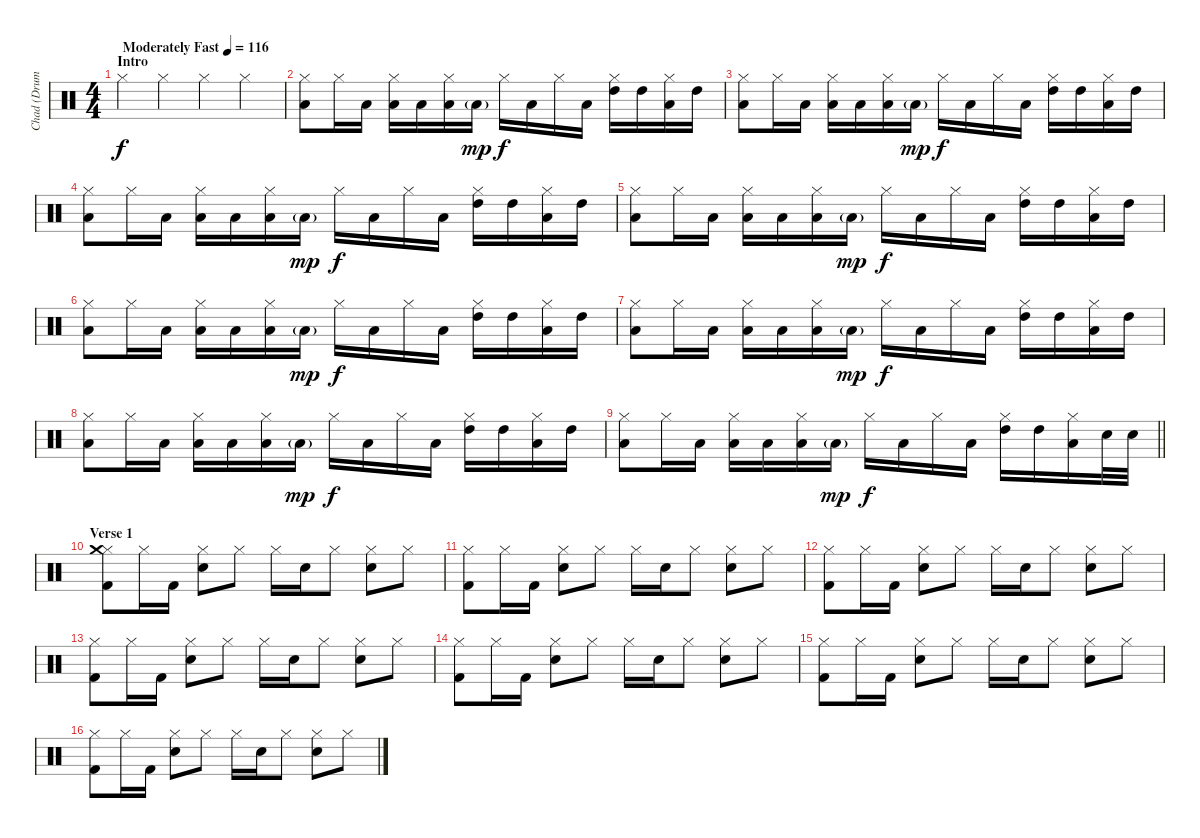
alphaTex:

\track ("Chad (Drums)" "Chad (Drum") {instrument percussion}
\staff {score}
\articulation defaults
\ts (4 4)
\section ("" "Intro")
\tempo (116 "Moderately Fast")
\clef neutral
\ks c "Hi-Hat (closed)".4{dy f} "Hi-Hat (closed)".4 "Hi-Hat (closed)".4 "Hi-Hat (closed)".4
|
("Hi-Hat (closed)" "Low Floor Tom (hit)").8{volume 8} "Hi-Hat (closed)".16 "Low Floor Tom (hit)".16 ("Hi-Hat (closed)" "Low Tom (hit)").16 "Low Tom (hit)".16 ("Hi-Hat (closed)" "Low Floor Tom (hit)").16 "Low Floor Tom (hit)"{g}.16{dy mp} "Hi-Hat (closed)".16{dy f} "Low Floor Tom (hit)".16 "Hi-Hat (closed)".16 "Low Floor Tom (hit)".16 ("Hi-Hat (closed)" "High Tom (hit)").16 "High Tom (hit)".16 ("Hi-Hat (closed)" "Low Tom (hit)").16 "High Tom (hit)".16 |
("Hi-Hat (closed)" "Low Floor Tom (hit)").8 "Hi-Hat (closed)".16 "Low Floor Tom (hit)".16 ("Hi-Hat (closed)" "Low Tom (hit)").16 "Low Tom (hit)".16 ("Hi-Hat (closed)" "Low Floor Tom (hit)").16 "Low Floor Tom (hit)"{g}.16{dy mp} "Hi-Hat (closed)".16{dy f} "Low Floor Tom (hit)".16 "Hi-Hat (closed)".16 "Low Floor Tom (hit)".16 ("Hi-Hat (closed)" "High Tom (hit)").16 "High Tom (hit)".16 ("Hi-Hat (closed)" "Low Tom (hit)").16 "High Tom (hit)".16 |
("Hi-Hat (closed)" "Low Floor Tom (hit)").8 "Hi-Hat (closed)".16 "Low Floor Tom (hit)".16 ("Hi-Hat (closed)" "Low Tom (hit)").16 "Low Tom (hit)".16 ("Hi-Hat (closed)" "Low Floor Tom (hit)").16 "Low Floor Tom (hit)"{g}.16{dy mp} "Hi-Hat (closed)".16{dy f} "Low Floor Tom (hit)".16 "Hi-Hat (closed)".16 "Low Floor Tom (hit)".16 ("Hi-Hat (closed)" "High Tom (hit)").16 "High Tom (hit)".16 ("Hi-Hat (closed)" "Low Tom (hit)").16 "High Tom (hit)".16 |
("Hi-Hat (closed)" "Low Floor Tom (hit)").8 "Hi-Hat (closed)".16 "Low Floor Tom (hit)".16 ("Hi-Hat (closed)" "Low Tom (hit)").16 "Low Tom (hit)".16 ("Hi-Hat (closed)" "Low Floor Tom (hit)").16 "Low Floor Tom (hit)"{g}.16{dy mp} "Hi-Hat (closed)".16{dy f} "Low Floor Tom (hit)".16 "Hi-Hat (closed)".16 "Low Floor Tom (hit)".16 ("Hi-Hat (closed)" "High Tom (hit)").16 "High Tom (hit)".16 ("Hi-Hat (closed)" "Low Tom (hit)").16 "High Tom (hit)".16 |
("Hi-Hat (closed)" "Low Floor Tom (hit)").8 "Hi-Hat (closed)".16 "Low Floor Tom (hit)".16 ("Hi-Hat (closed)" "Low Tom (hit)").16 "Low Tom (hit)".16 ("Hi-Hat (closed)" "Low Floor Tom (hit)").16 "Low Floor Tom (hit)"{g}.16{dy mp} "Hi-Hat (closed)".16{dy f} "Low Floor Tom (hit)".16 "Hi-Hat (closed)".16 "Low Floor Tom (hit)".16 ("Hi-Hat (closed)" "High Tom (hit)").16 "High Tom (hit)".16 ("Hi-Hat (closed)" "Low Tom (hit)").16 "High Tom (hit)".16 |
("Hi-Hat (closed)" "Low Floor Tom (hit)").8 "Hi-Hat (closed)".16 "Low Floor Tom (hit)".16 ("Hi-Hat (closed)" "Low Tom (hit)").16 "Low Tom (hit)".16 ("Hi-Hat (closed)" "Low Floor Tom (hit)").16 "Low Floor Tom (hit)"{g}.16{dy mp} "Hi-Hat (closed)".16{dy f} "Low Floor Tom (hit)".16 "Hi-Hat (closed)".16 "Low Floor Tom (hit)".16 ("Hi-Hat (closed)" "High Tom (hit)").16 "High Tom (hit)".16 ("Hi-Hat (closed)" "Low Tom (hit)").16 "High Tom (hit)".16 |
("Hi-Hat (closed)" "Low Floor Tom (hit)").8 "Hi-Hat (closed)".16 "Low Floor Tom (hit)".16 ("Hi-Hat (closed)" "Low Tom (hit)").16 "Low Tom (hit)".16 ("Hi-Hat (closed)" "Low Floor Tom (hit)").16 "Low Floor Tom (hit)"{g}.16{dy mp} "Hi-Hat (closed)".16{dy f} "Low Floor Tom (hit)".16 "Hi-Hat (closed)".16 "Low Floor Tom (hit)".16 ("Hi-Hat (closed)" "High Tom (hit)").16 "High Tom (hit)".16 ("Hi-Hat (closed)" "Low Tom (hit)").16 "High Tom (hit)".16 |
\barLineRight lightlight
("Hi-Hat (closed)" "Low Floor Tom (hit)").8{volume 10} "Hi-Hat (closed)".16 "Low Floor Tom (hit)".16 ("Hi-Hat (closed)" "Low Tom (hit)").16 "Low Tom (hit)".16 ("Hi-Hat (closed)" "Low Floor Tom (hit)").16 "Low Floor Tom (hit)"{g}.16{dy mp} "Hi-Hat (closed)".16{dy f} "Low Floor Tom (hit)".16 "Hi-Hat (closed)".16 "Low Floor Tom (hit)".16 ("Hi-Hat (closed)" "High Tom (hit)").16{volume 13} "High Tom (hit)".16 ("Hi-Hat (closed)" "Low Tom (hit)").16 "Snare (hit) 2".32 "Snare (hit) 2".32 |
\section ("" "Verse 1")
("Hi-Hat (closed)" "Crash medium (hit)" "Kick (hit) 2").8 "Hi-Hat (closed)".16 "Kick (hit) 2".16 ("Hi-Hat (closed)" "Snare (hit) 2").8 "Hi-Hat (closed)".8 "Hi-Hat (closed)".16 "Snare (hit) 2".16 "Hi-Hat (closed)".8 ("Hi-Hat (closed)" "Snare (hit) 2").8 "Hi-Hat (closed)".8 |
("Hi-Hat (closed)" "Kick (hit) 2").8 "Hi-Hat (closed)".16 "Kick (hit) 2".16 ("Hi-Hat (closed)" "Snare (hit) 2").8 "Hi-Hat (closed)".8 "Hi-Hat (closed)".16 "Snare (hit) 2".16 "Hi-Hat (closed)".8 ("Hi-Hat (closed)" "Snare (hit) 2").8 "Hi-Hat (closed)".8 |
("Hi-Hat (closed)" "Kick (hit) 2").8 "Hi-Hat (closed)".16 "Kick (hit) 2".16 ("Hi-Hat (closed)" "Snare (hit) 2").8 "Hi-Hat (closed)".8 "Hi-Hat (closed)".16 "Snare (hit) 2".16 "Hi-Hat (closed)".8 ("Hi-Hat (closed)" "Snare (hit) 2").8 "Hi-Hat (closed)".8 |
("Hi-Hat (closed)" "Kick (hit) 2").8 "Hi-Hat (closed)".16 "Kick (hit) 2".16 ("Hi-Hat (closed)" "Snare (hit) 2").8 "Hi-Hat (closed)".8 "Hi-Hat (closed)".16 "Snare (hit) 2".16 "Hi-Hat (closed)".8 ("Hi-Hat (closed)" "Snare (hit) 2").8 "Hi-Hat (closed)".8 |
("Hi-Hat (closed)" "Kick (hit) 2").8 "Hi-Hat (closed)".16 "Kick (hit) 2".16 ("Hi-Hat (closed)" "Snare (hit) 2").8 "Hi-Hat (closed)".8 "Hi-Hat (closed)".16 "Snare (hit) 2".16 "Hi-Hat (closed)".8 ("Hi-Hat (closed)" "Snare (hit) 2").8 "Hi-Hat (closed)".8 |
("Hi-Hat (closed)" "Kick (hit) 2").8 "Hi-Hat (closed)".16 "Kick (hit) 2".16 ("Hi-Hat (closed)" "Snare (hit) 2").8 "Hi-Hat (closed)".8 "Hi-Hat (closed)".16 "Snare (hit) 2".16 "Hi-Hat (closed)".8 ("Hi-Hat (closed)" "Snare (hit) 2").8 "Hi-Hat (closed)".8 |
("Hi-Hat (closed)" "Kick (hit) 2").8 "Hi-Hat (closed)".16 "Kick (hit) 2".16 ("Hi-Hat (closed)" "Snare (hit) 2").8 "Hi-Hat (closed)".8 "Hi-Hat (closed)".16 "Snare (hit) 2".16 "Hi-Hat (closed)".8 ("Hi-Hat (closed)" "Snare (hit) 2").8 "Hi-Hat (closed)".8
